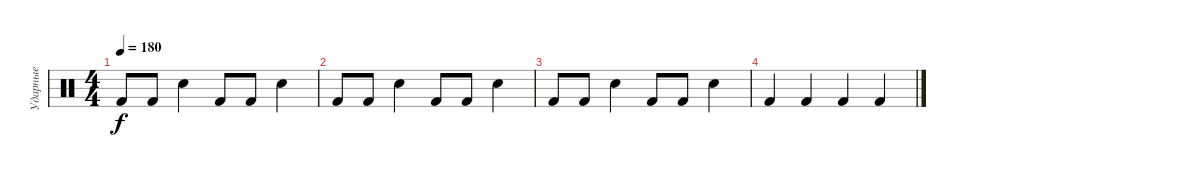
\track ("Ударные" "Ударные") {instrument percussion}
\staff {score}
\articulation defaults
\ts (4 4)
\tempo 180
\clef neutral
\ks c "Kick (hit) 2".8{dy f} "Kick (hit) 2".8 "Electric Snare (hit)".4 "Kick (hit) 2".8 "Kick (hit) 2".8 "Electric Snare (hit)".4
|
"Kick (hit) 2".8 "Kick (hit) 2".8 "Electric Snare (hit)".4 "Kick (hit) 2".8 "Kick (hit) 2".8 "Electric Snare (hit)".4 |
"Kick (hit) 2".8 "Kick (hit) 2".8 "Electric Snare (hit)".4 "Kick (hit) 2".8 "Kick (hit) 2".8 "Electric Snare (hit)".4 |
"Kick (hit) 2".4 "Kick (hit) 2".4 "Kick (hit) 2".4 "Kick (hit) 2".4
